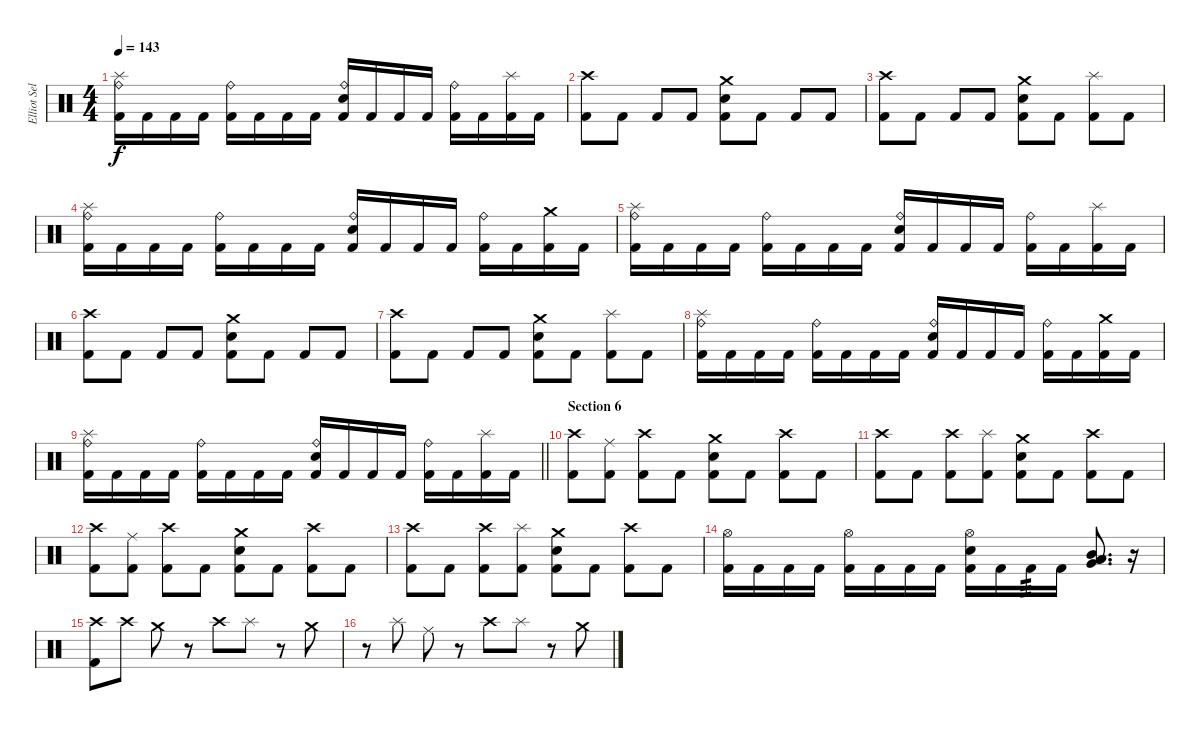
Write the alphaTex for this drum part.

\track ("Elliot Sellers" "Elliot Sel") {instrument percussion}
\staff {score}
\articulation defaults
\ts (4 4)
\tempo 143
\clef neutral
\ks c
("Kick (hit) 2" "Ride (bell)" "Splash (hit)").16{dy f} "Kick (hit) 2".16 "Kick (hit) 2".16 "Kick (hit) 2".16 ("Kick (hit) 2" "Ride (bell)").16 "Kick (hit) 2".16 "Kick (hit) 2".16 "Kick (hit) 2".16 ("Kick (hit) 2" "Ride (bell)" "Electric Snare (hit)").16 "Kick (hit) 2".16 "Kick (hit) 2".16 "Kick (hit) 2".16 ("Kick (hit) 2" "Ride (bell)").16 "Kick (hit) 2".16 ("Kick (hit) 2" "Splash (hit)").16 "Kick (hit) 2".16 |
("Kick (hit) 2" "Crash high (hit)").8 "Kick (hit) 2".8 "Kick (hit) 2".8 "Kick (hit) 2".8 ("Kick (hit) 2" "Crash medium (hit)" "Electric Snare (hit)").8 "Kick (hit) 2".8 "Kick (hit) 2".8 "Kick (hit) 2".8 |
("Kick (hit) 2" "Crash high (hit)").8 "Kick (hit) 2".8 "Kick (hit) 2".8 "Kick (hit) 2".8 ("Kick (hit) 2" "Crash medium (hit)" "Electric Snare (hit)").8 "Kick (hit) 2".8 ("Kick (hit) 2" "Splash (hit)").8 "Kick (hit) 2".8 |
("Kick (hit) 2" "Ride (bell)" "Splash (hit)").16 "Kick (hit) 2".16 "Kick (hit) 2".16 "Kick (hit) 2".16 ("Kick (hit) 2" "Ride (bell)").16 "Kick (hit) 2".16 "Kick (hit) 2".16 "Kick (hit) 2".16 ("Kick (hit) 2" "Ride (bell)" "Electric Snare (hit)").16 "Kick (hit) 2".16 "Kick (hit) 2".16 "Kick (hit) 2".16 ("Kick (hit) 2" "Ride (bell)").16 "Kick (hit) 2".16 ("Kick (hit) 2" "Crash medium (hit)").16 "Kick (hit) 2".16 |
("Kick (hit) 2" "Ride (bell)" "Splash (hit)").16 "Kick (hit) 2".16 "Kick (hit) 2".16 "Kick (hit) 2".16 ("Kick (hit) 2" "Ride (bell)").16 "Kick (hit) 2".16 "Kick (hit) 2".16 "Kick (hit) 2".16 ("Kick (hit) 2" "Ride (bell)" "Electric Snare (hit)").16 "Kick (hit) 2".16 "Kick (hit) 2".16 "Kick (hit) 2".16 ("Kick (hit) 2" "Ride (bell)").16 "Kick (hit) 2".16 ("Kick (hit) 2" "Splash (hit)").16 "Kick (hit) 2".16 |
("Kick (hit) 2" "Crash high (hit)").8 "Kick (hit) 2".8 "Kick (hit) 2".8 "Kick (hit) 2".8 ("Kick (hit) 2" "Crash medium (hit)" "Electric Snare (hit)").8 "Kick (hit) 2".8 "Kick (hit) 2".8 "Kick (hit) 2".8 |
("Kick (hit) 2" "Crash high (hit)").8 "Kick (hit) 2".8 "Kick (hit) 2".8 "Kick (hit) 2".8 ("Kick (hit) 2" "Crash medium (hit)" "Electric Snare (hit)").8 "Kick (hit) 2".8 ("Kick (hit) 2" "Splash (hit)").8 "Kick (hit) 2".8 |
("Kick (hit) 2" "Ride (bell)" "Splash (hit)").16 "Kick (hit) 2".16 "Kick (hit) 2".16 "Kick (hit) 2".16 ("Kick (hit) 2" "Ride (bell)").16 "Kick (hit) 2".16 "Kick (hit) 2".16 "Kick (hit) 2".16 ("Kick (hit) 2" "Ride (bell)" "Electric Snare (hit)").16 "Kick (hit) 2".16 "Kick (hit) 2".16 "Kick (hit) 2".16 ("Kick (hit) 2" "Ride (bell)").16 "Kick (hit) 2".16 ("Kick (hit) 2" "Crash medium (hit)").16 "Kick (hit) 2".16 |
\barLineRight lightlight
("Kick (hit) 2" "Ride (bell)" "Splash (hit)").16 "Kick (hit) 2".16 "Kick (hit) 2".16 "Kick (hit) 2".16 ("Kick (hit) 2" "Ride (bell)").16 "Kick (hit) 2".16 "Kick (hit) 2".16 "Kick (hit) 2".16 ("Kick (hit) 2" "Ride (bell)" "Electric Snare (hit)").16 "Kick (hit) 2".16 "Kick (hit) 2".16 "Kick (hit) 2".16 ("Kick (hit) 2" "Ride (bell)").16 "Kick (hit) 2".16 ("Kick (hit) 2" "Splash (hit)").16 "Kick (hit) 2".16 |
\section ("" "Section 6")
("Kick (hit) 2" "Crash high (hit)").8 ("Kick (hit) 2" "Ride (middle)").8 ("Kick (hit) 2" "Crash high (hit)").8 "Kick (hit) 2".8 ("Kick (hit) 2" "Electric Snare (hit)" "Crash medium (hit)").8 "Kick (hit) 2".8 ("Kick (hit) 2" "Crash high (hit)").8 "Kick (hit) 2".8 |
("Kick (hit) 2" "Crash high (hit)").8 "Kick (hit) 2".8 ("Kick (hit) 2" "Crash high (hit)").8 ("Kick (hit) 2" "Splash (hit)").8 ("Kick (hit) 2" "Electric Snare (hit)" "Crash medium (hit)").8 "Kick (hit) 2".8 ("Kick (hit) 2" "Crash high (hit)").8 "Kick (hit) 2".8 |
("Kick (hit) 2" "Crash high (hit)").8 ("Kick (hit) 2" "Ride (middle)").8 ("Kick (hit) 2" "Crash high (hit)").8 "Kick (hit) 2".8 ("Kick (hit) 2" "Electric Snare (hit)" "Crash medium (hit)").8 "Kick (hit) 2".8 ("Kick (hit) 2" "Crash high (hit)").8 "Kick (hit) 2".8 |
("Kick (hit) 2" "Crash high (hit)").8 "Kick (hit) 2".8 ("Kick (hit) 2" "Crash high (hit)").8 ("Kick (hit) 2" "Splash (hit)").8 ("Kick (hit) 2" "Electric Snare (hit)" "Crash medium (hit)").8 "Kick (hit) 2".8 ("Kick (hit) 2" "Crash high (hit)").8 "Kick (hit) 2".8 |
("Kick (hit) 2" "Hi-Hat (open)").16 "Kick (hit) 2".16 "Kick (hit) 2".16 "Kick (hit) 2".16 ("Kick (hit) 2" "Hi-Hat (open)").16 "Kick (hit) 2".16 "Kick (hit) 2".16 "Kick (hit) 2".16 ("Kick (hit) 2" "Hi-Hat (open)" "Electric Snare (hit)").16 "Kick (hit) 2".16 "Kick (hit) 2".16{tp 3} "Kick (hit) 2".16 ("Low Tom (hit)" "Low Tom (hit)" "Very Low Tom (hit)" "Mid Tom (hit)").8{d} r.16 |
("Crash high (hit)" "Kick (hit) 2").8 "Crash high (hit)".8 "Crash medium (hit)".8 r.8 "Crash high (hit)".8 "Splash (hit)".8 r.8 "Crash medium (hit)".8 |
r.8 "Splash (hit)".8 "Ride (middle)".8 r.8 "Crash high (hit)".8 "Splash (hit)".8 r.8 "Crash medium (hit)".8
